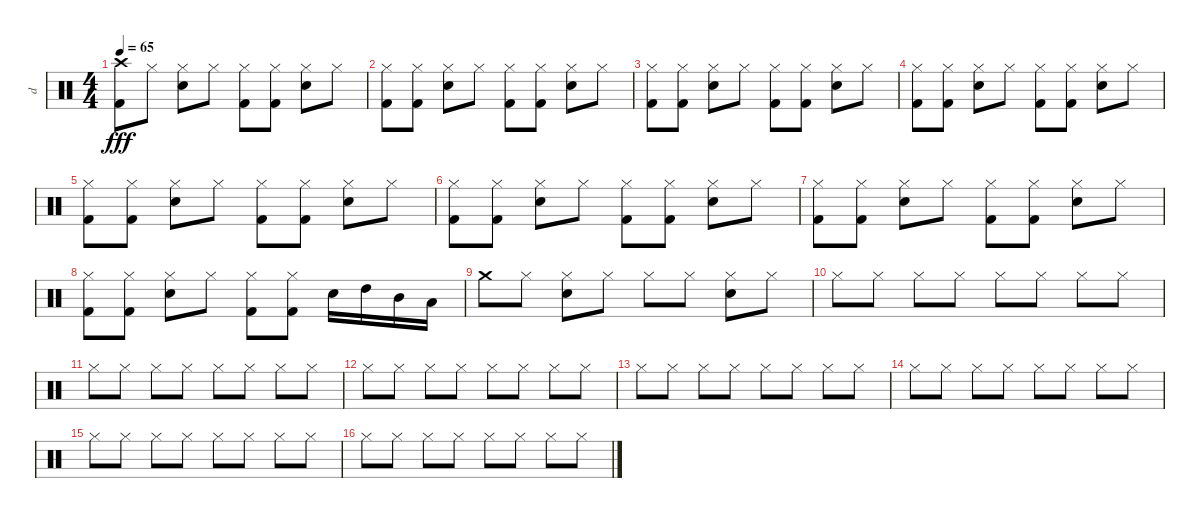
\track ("d" "d") {instrument percussion}
\staff {score}
\articulation defaults
\ts (4 4)
\tempo 65
\clef neutral
\ks c
("Crash high (hit)" "Kick (hit) 2").8{dy fff} "Hi-Hat (closed)".8 ("Electric Snare (hit)" "Hi-Hat (closed)").8 "Hi-Hat (closed)".8 ("Kick (hit) 2" "Hi-Hat (closed)").8 ("Kick (hit) 2" "Hi-Hat (closed)").8 ("Electric Snare (hit)" "Hi-Hat (closed)").8 "Hi-Hat (closed)".8 |
("Hi-Hat (closed)" "Kick (hit) 2").8 ("Kick (hit) 2" "Hi-Hat (closed)").8 ("Electric Snare (hit)" "Hi-Hat (closed)").8 "Hi-Hat (closed)".8 ("Kick (hit) 2" "Hi-Hat (closed)").8 ("Kick (hit) 2" "Hi-Hat (closed)").8 ("Electric Snare (hit)" "Hi-Hat (closed)").8 "Hi-Hat (closed)".8 |
("Hi-Hat (closed)" "Kick (hit) 2").8 ("Kick (hit) 2" "Hi-Hat (closed)").8 ("Electric Snare (hit)" "Hi-Hat (closed)").8 "Hi-Hat (closed)".8 ("Kick (hit) 2" "Hi-Hat (closed)").8 ("Kick (hit) 2" "Hi-Hat (closed)").8 ("Electric Snare (hit)" "Hi-Hat (closed)").8 "Hi-Hat (closed)".8 |
("Hi-Hat (closed)" "Kick (hit) 2").8 ("Kick (hit) 2" "Hi-Hat (closed)").8 ("Electric Snare (hit)" "Hi-Hat (closed)").8 "Hi-Hat (closed)".8 ("Kick (hit) 2" "Hi-Hat (closed)").8 ("Kick (hit) 2" "Hi-Hat (closed)").8 ("Electric Snare (hit)" "Hi-Hat (closed)").8 "Hi-Hat (closed)".8 |
("Hi-Hat (closed)" "Kick (hit) 2").8 ("Kick (hit) 2" "Hi-Hat (closed)").8 ("Electric Snare (hit)" "Hi-Hat (closed)").8 "Hi-Hat (closed)".8 ("Kick (hit) 2" "Hi-Hat (closed)").8 ("Kick (hit) 2" "Hi-Hat (closed)").8 ("Electric Snare (hit)" "Hi-Hat (closed)").8 "Hi-Hat (closed)".8 |
("Hi-Hat (closed)" "Kick (hit) 2").8 ("Kick (hit) 2" "Hi-Hat (closed)").8 ("Electric Snare (hit)" "Hi-Hat (closed)").8 "Hi-Hat (closed)".8 ("Kick (hit) 2" "Hi-Hat (closed)").8 ("Kick (hit) 2" "Hi-Hat (closed)").8 ("Electric Snare (hit)" "Hi-Hat (closed)").8 "Hi-Hat (closed)".8 |
("Hi-Hat (closed)" "Kick (hit) 2").8 ("Kick (hit) 2" "Hi-Hat (closed)").8 ("Electric Snare (hit)" "Hi-Hat (closed)").8 "Hi-Hat (closed)".8 ("Kick (hit) 2" "Hi-Hat (closed)").8 ("Kick (hit) 2" "Hi-Hat (closed)").8 ("Electric Snare (hit)" "Hi-Hat (closed)").8 "Hi-Hat (closed)".8 |
("Hi-Hat (closed)" "Kick (hit) 2").8 ("Kick (hit) 2" "Hi-Hat (closed)").8 ("Electric Snare (hit)" "Hi-Hat (closed)").8 "Hi-Hat (closed)".8 ("Hi-Hat (closed)" "Kick (hit) 2").8 ("Hi-Hat (closed)" "Kick (hit) 2").8 "Electric Snare (hit)".16 "High Tom (hit)".16 "Mid Tom (hit)".16 "Low Tom (hit)".16 |
"Crash medium (hit)".8 "Hi-Hat (closed)".8 ("Electric Snare (hit)" "Hi-Hat (closed)").8 "Hi-Hat (closed)".8 "Hi-Hat (closed)".8 "Hi-Hat (closed)".8 ("Electric Snare (hit)" "Hi-Hat (closed)").8 "Hi-Hat (closed)".8 |
"Hi-Hat (closed)".8 "Hi-Hat (closed)".8 "Hi-Hat (closed)".8 "Hi-Hat (closed)".8 "Hi-Hat (closed)".8 "Hi-Hat (closed)".8 "Hi-Hat (closed)".8 "Hi-Hat (closed)".8 |
"Hi-Hat (closed)".8 "Hi-Hat (closed)".8 "Hi-Hat (closed)".8 "Hi-Hat (closed)".8 "Hi-Hat (closed)".8 "Hi-Hat (closed)".8 "Hi-Hat (closed)".8 "Hi-Hat (closed)".8 |
"Hi-Hat (closed)".8 "Hi-Hat (closed)".8 "Hi-Hat (closed)".8 "Hi-Hat (closed)".8 "Hi-Hat (closed)".8 "Hi-Hat (closed)".8 "Hi-Hat (closed)".8 "Hi-Hat (closed)".8 |
"Hi-Hat (closed)".8 "Hi-Hat (closed)".8 "Hi-Hat (closed)".8 "Hi-Hat (closed)".8 "Hi-Hat (closed)".8 "Hi-Hat (closed)".8 "Hi-Hat (closed)".8 "Hi-Hat (closed)".8 |
"Hi-Hat (closed)".8 "Hi-Hat (closed)".8 "Hi-Hat (closed)".8 "Hi-Hat (closed)".8 "Hi-Hat (closed)".8 "Hi-Hat (closed)".8 "Hi-Hat (closed)".8 "Hi-Hat (closed)".8 |
"Hi-Hat (closed)".8 "Hi-Hat (closed)".8 "Hi-Hat (closed)".8 "Hi-Hat (closed)".8 "Hi-Hat (closed)".8 "Hi-Hat (closed)".8 "Hi-Hat (closed)".8 "Hi-Hat (closed)".8 |
"Hi-Hat (closed)".8 "Hi-Hat (closed)".8 "Hi-Hat (closed)".8 "Hi-Hat (closed)".8 "Hi-Hat (closed)".8 "Hi-Hat (closed)".8 "Hi-Hat (closed)".8 "Hi-Hat (closed)".8
